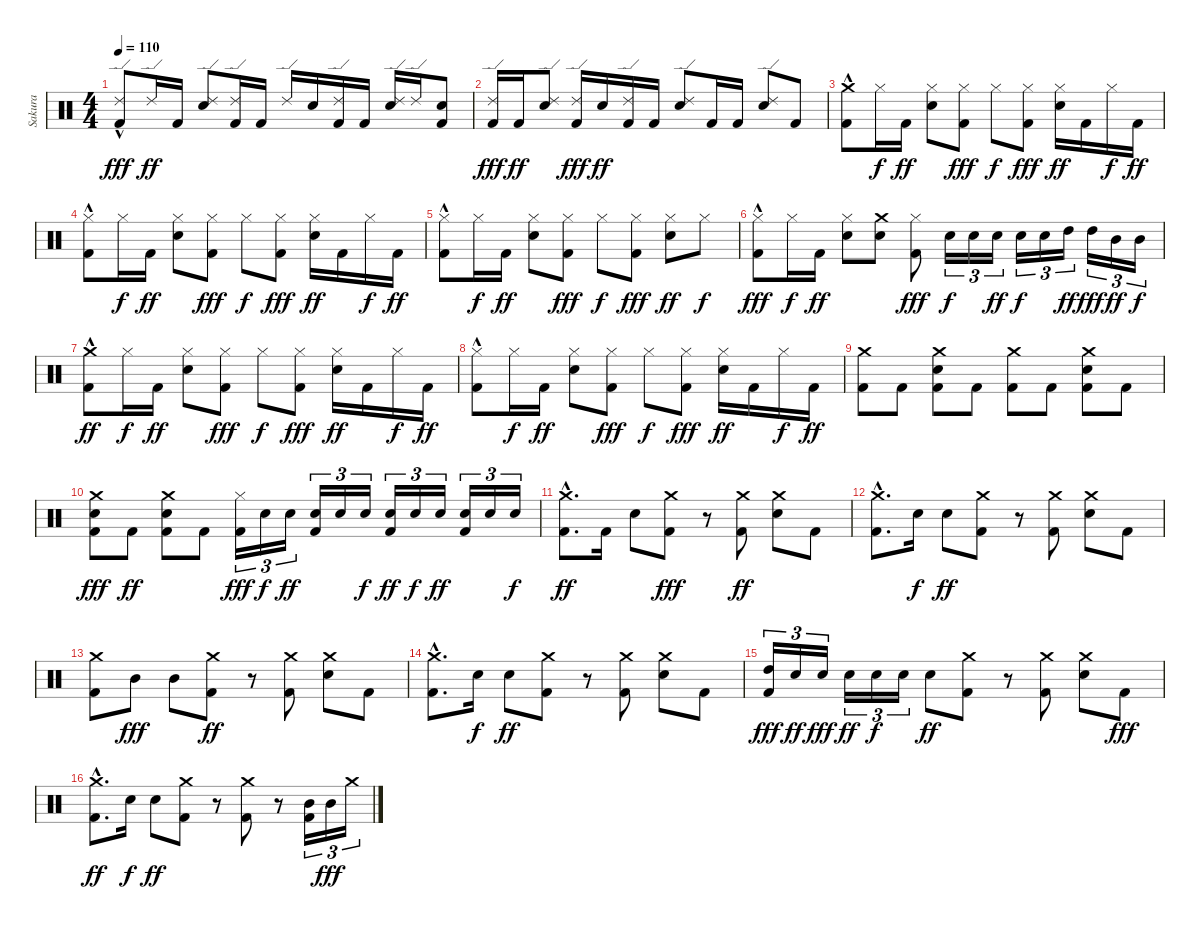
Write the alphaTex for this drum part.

\track ("Sakura" "Sakura") {instrument percussion}
\staff {score}
\articulation defaults
\ts (4 4)
\tempo 110
\clef neutral
\ks c
("Kick (hit) 2"{hac} "Ride (edge) 2").8{dy fff volume 15 balance 8} "Ride (edge) 2".16{dy ff} "Kick (hit) 2".16 ("Snare (hit) 2" "Ride (edge) 2").8 ("Ride (edge) 2" "Kick (hit) 2").16 "Kick (hit) 2".16 "Ride (edge) 2".16 "Snare (hit) 2".16 ("Kick (hit) 2" "Ride (edge) 2").16 "Kick (hit) 2".16 ("Snare (hit) 2" "Ride (edge) 2").16 "Ride (edge) 2".16 ("Kick (hit) 2" "Electric Snare (hit)").8 |
("Ride (edge) 2" "Kick (hit) 2").16{dy fff} "Kick (hit) 2".16{dy ff} ("Snare (hit) 2" "Ride (edge) 2").8 ("Ride (edge) 2" "Kick (hit) 2").16{dy fff} "Snare (hit) 2".16{dy ff} ("Kick (hit) 2" "Ride (edge) 2").16 "Kick (hit) 2".16 ("Snare (hit) 2" "Ride (edge) 2").8 "Kick (hit) 2".16 "Kick (hit) 2".16 ("Snare (hit) 2" "Ride (edge) 2").8 "Kick (hit) 2".8 |
("Kick (hit) 2"{hac} "Crash medium (hit)").8 "Hi-Hat (closed)".16{dy f} "Kick (hit) 2".16{dy ff} ("Hi-Hat (closed)" "Snare (hit) 2").8 ("Hi-Hat (closed)" "Kick (hit) 2").8{dy fff} "Hi-Hat (closed)".8{dy f} ("Kick (hit) 2" "Hi-Hat (closed)").8{dy fff} ("Snare (hit) 2" "Hi-Hat (closed)").16{dy ff} "Kick (hit) 2".16 "Hi-Hat (closed)".16{dy f} "Kick (hit) 2".16{dy ff} |
("Kick (hit) 2"{hac} "Hi-Hat (closed)").8 "Hi-Hat (closed)".16{dy f} "Kick (hit) 2".16{dy ff} ("Snare (hit) 2" "Hi-Hat (closed)").8 ("Kick (hit) 2" "Hi-Hat (closed)").8{dy fff} "Hi-Hat (closed)".8{dy f} ("Kick (hit) 2" "Hi-Hat (closed)").8{dy fff} ("Snare (hit) 2" "Hi-Hat (closed)").16{dy ff} "Kick (hit) 2".16 "Hi-Hat (closed)".16{dy f} "Kick (hit) 2".16{dy ff} |
("Kick (hit) 2"{hac} "Hi-Hat (closed)").8 "Hi-Hat (closed)".16{dy f} "Kick (hit) 2".16{dy ff} ("Snare (hit) 2" "Hi-Hat (closed)").8 ("Kick (hit) 2" "Hi-Hat (closed)").8{dy fff} "Hi-Hat (closed)".8{dy f} ("Kick (hit) 2" "Hi-Hat (closed)").8{dy fff} ("Snare (hit) 2" "Hi-Hat (closed)").8{dy ff} "Hi-Hat (closed)".8{dy f} |
("Kick (hit) 2"{hac} "Hi-Hat (closed)").8{dy fff} "Hi-Hat (closed)".16{dy f} "Kick (hit) 2".16{dy ff} ("Snare (hit) 2" "Hi-Hat (closed)").8 ("Crash medium (hit)" "Snare (hit) 2").8 ("Hi-Hat (closed)" "Kick (hit) 2").8{dy fff} "Snare (hit) 2".16{tu (3 2) dy f} "Snare (hit) 2".16{tu (3 2)} "Snare (hit) 2".16{tu (3 2) dy ff} "Snare (hit) 2".16{tu (3 2) dy f} "Snare (hit) 2".16{tu (3 2)} "High Tom (hit)".16{tu (3 2) dy ff} "High Tom (hit)".16{tu (3 2) dy fff} "Mid Tom (hit)".16{tu (3 2) dy ff} "Mid Tom (hit)".16{tu (3 2) dy f} |
("Kick (hit) 2"{hac} "Crash medium (hit)").8{dy ff} "Hi-Hat (closed)".16{dy f} "Kick (hit) 2".16{dy ff} ("Snare (hit) 2" "Hi-Hat (closed)").8 ("Kick (hit) 2" "Hi-Hat (closed)").8{dy fff} "Hi-Hat (closed)".8{dy f} ("Kick (hit) 2" "Hi-Hat (closed)").8{dy fff} ("Snare (hit) 2" "Hi-Hat (closed)").16{dy ff} "Kick (hit) 2".16 "Hi-Hat (closed)".16{dy f} "Kick (hit) 2".16{dy ff} |
("Kick (hit) 2"{hac} "Hi-Hat (closed)").8 "Hi-Hat (closed)".16{dy f} "Kick (hit) 2".16{dy ff} ("Snare (hit) 2" "Hi-Hat (closed)").8 ("Kick (hit) 2" "Hi-Hat (closed)").8{dy fff} "Hi-Hat (closed)".8{dy f} ("Kick (hit) 2" "Hi-Hat (closed)").8{dy fff} ("Snare (hit) 2" "Hi-Hat (closed)").16{dy ff} "Kick (hit) 2".16 "Hi-Hat (closed)".16{dy f} "Kick (hit) 2".16{dy ff} |
("Kick (hit) 2" "Crash medium (hit)").8 "Kick (hit) 2".8 ("Kick (hit) 2" "Snare (hit) 2" "Crash medium (hit)").8 "Kick (hit) 2".8 ("Kick (hit) 2" "Crash medium (hit)").8 "Kick (hit) 2".8 ("Kick (hit) 2" "Snare (hit) 2" "Crash medium (hit)").8 "Kick (hit) 2".8 |
("Crash medium (hit)" "Snare (hit) 2" "Kick (hit) 2").8{dy fff} "Kick (hit) 2".8{dy ff} ("Crash medium (hit)" "Snare (hit) 2" "Kick (hit) 2").8 "Kick (hit) 2".8 ("Hi-Hat (closed)" "Kick (hit) 2").16{tu (3 2) dy fff} "Snare (hit) 2".16{tu (3 2) dy f} "Snare (hit) 2".16{tu (3 2) dy ff} ("Snare (hit) 2" "Kick (hit) 2").16{tu (3 2)} "Snare (hit) 2".16{tu (3 2)} "Snare (hit) 2".16{tu (3 2) dy f} ("Snare (hit) 2" "Kick (hit) 2").16{tu (3 2) dy ff} "Snare (hit) 2".16{tu (3 2) dy f} "Snare (hit) 2".16{tu (3 2) dy ff} ("Snare (hit) 2" "Kick (hit) 2").16{tu (3 2)} "Snare (hit) 2".16{tu (3 2)} "Snare (hit) 2".16{tu (3 2) dy f} |
("Kick (hit) 2"{hac} "Crash medium (hit)").8{d dy ff} "Kick (hit) 2".16 "Snare (hit) 2".8 ("Kick (hit) 2" "Crash medium (hit)").8{dy fff} r.8 ("Kick (hit) 2" "Crash medium (hit)").8{dy ff} ("Snare (hit) 2" "Crash medium (hit)").8 "Kick (hit) 2".8 |
("Kick (hit) 2" "Crash medium (hit)"{hac}).8{d} "Snare (hit) 2".16{dy f} "Snare (hit) 2".8{dy ff} ("Kick (hit) 2" "Crash medium (hit)").8 r.8 ("Kick (hit) 2" "Crash medium (hit)").8 ("Crash medium (hit)" "Snare (hit) 2").8 "Kick (hit) 2".8 |
("Kick (hit) 2" "Crash medium (hit)").8 "Mid Tom (hit)".8{dy fff} "Mid Tom (hit)".8 ("Kick (hit) 2" "Crash medium (hit)").8{dy ff} r.8 ("Kick (hit) 2" "Crash medium (hit)").8 ("Snare (hit) 2" "Crash medium (hit)").8 "Kick (hit) 2".8 |
("Kick (hit) 2" "Crash medium (hit)"{hac}).8{d} "Snare (hit) 2".16{dy f} "Snare (hit) 2".8{dy ff} ("Kick (hit) 2" "Crash medium (hit)").8 r.8 ("Kick (hit) 2" "Crash medium (hit)").8 ("Crash medium (hit)" "Snare (hit) 2").8 "Kick (hit) 2".8 |
("Kick (hit) 2" "High Tom (hit)").16{tu (3 2) dy fff} "Snare (hit) 2".16{tu (3 2) dy ff} "Snare (hit) 2".16{tu (3 2) dy fff} "Snare (hit) 2".16{tu (3 2) dy ff} "Snare (hit) 2".16{tu (3 2) dy f} "Snare (hit) 2".16{tu (3 2)} "Snare (hit) 2".8{dy ff} ("Kick (hit) 2" "Crash medium (hit)").8 r.8 ("Kick (hit) 2" "Crash medium (hit)").8 ("Crash medium (hit)" "Snare (hit) 2").8 "Kick (hit) 2".8{dy fff} |
("Kick (hit) 2" "Crash medium (hit)"{hac}).8{d dy ff} "Snare (hit) 2".16{dy f} "Snare (hit) 2".8{dy ff} ("Kick (hit) 2" "Crash medium (hit)").8 r.8 ("Kick (hit) 2" "Crash medium (hit)").8 r.8 ("Mid Tom (hit)" "Kick (hit) 2").16{tu (3 2)} "Mid Tom (hit)".16{tu (3 2) dy fff} "Crash medium (hit)".16{tu (3 2)}
